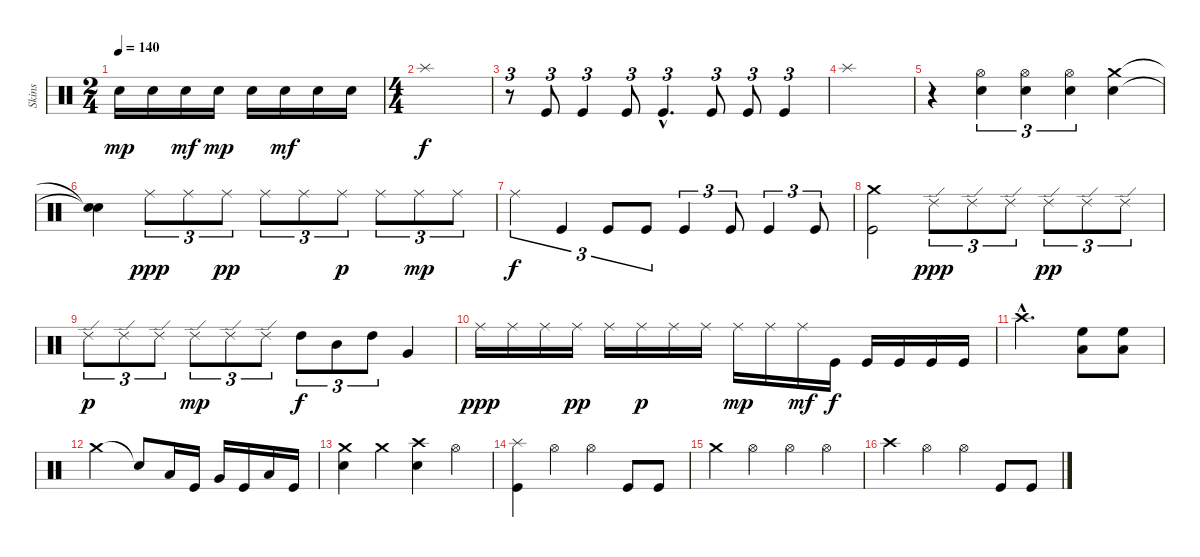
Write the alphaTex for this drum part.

\track ("Skins" "Skins") {instrument percussion}
\staff {score}
\articulation defaults
\ts (2 4)
\tempo 140
\clef neutral
\ks c "Snare (hit) 2".16{dy mp} "Snare (hit) 2".16 "Snare (hit) 2".16{dy mf} "Snare (hit) 2".16{dy mp} "Snare (hit) 2".16 "Snare (hit) 2".16{dy mf} "Snare (hit) 2".16 "Snare (hit) 2".16
|
\ts (4 4)
"Splash (hit)".1{dy f} |
r.8{tu (3 2)} "Kick (hit)".8{tu (3 2)} "Kick (hit)".4{tu (3 2)} "Kick (hit)".8{tu (3 2)} "Kick (hit)"{hac}.4{d tu (3 2)} "Kick (hit)".8{tu (3 2)} "Kick (hit)".8{tu (3 2)} "Kick (hit)".4{tu (3 2)} |
"Splash (hit)".1 |
r.4 ("Hi-Hat (open)" "Electric Snare (hit)").4{tu (3 2)} ("Hi-Hat (open)" "Electric Snare (hit)").4{tu (3 2)} ("Hi-Hat (open)" "Electric Snare (hit)").4{tu (3 2)} ("Crash medium (hit)" "Snare (hit) 2").4 |
("Snare (hit)"{t} "Snare (hit)"{t}).4 "Ride (middle)".8{tu (3 2) dy ppp} "Ride (middle)".8{tu (3 2)} "Ride (middle)".8{tu (3 2) dy pp} "Ride (middle)".8{tu (3 2)} "Ride (middle)".8{tu (3 2)} "Ride (middle)".8{tu (3 2) dy p} "Ride (middle)".8{tu (3 2)} "Ride (middle)".8{tu (3 2) dy mp} "Ride (middle)".8{tu (3 2)} |
"Ride (middle)".4{tu (3 2) dy f} "Kick (hit)".4{tu (3 2)} "Kick (hit)".8{tu (3 2)} "Kick (hit)".8{tu (3 2)} "Kick (hit)".4{tu (3 2)} "Kick (hit)".8{tu (3 2)} "Kick (hit)".4{tu (3 2)} "Kick (hit)".8{tu (3 2)} |
("Crash medium (hit)" "Kick (hit)").2 "Ride (edge) 2".8{tu (3 2) dy ppp} "Ride (edge) 2".8{tu (3 2)} "Ride (edge) 2".8{tu (3 2)} "Ride (edge) 2".8{tu (3 2) dy pp} "Ride (edge) 2".8{tu (3 2)} "Ride (edge) 2".8{tu (3 2)} |
"Ride (edge) 2".8{tu (3 2) dy p} "Ride (edge) 2".8{tu (3 2)} "Ride (edge) 2".8{tu (3 2)} "Ride (edge) 2".8{tu (3 2) dy mp} "Ride (edge) 2".8{tu (3 2)} "Ride (edge) 2".8{tu (3 2)} "High Tom (hit)".8{tu (3 2) dy f} "Mid Tom (hit)".8{tu (3 2)} "High Tom (hit)".8{tu (3 2)} "Very Low Tom (hit)".4 |
"Ride (middle)".16{dy ppp} "Ride (middle)".16 "Ride (middle)".16 "Ride (middle)".16{dy pp} "Ride (middle)".16 "Ride (middle)".16{dy p} "Ride (middle)".16 "Ride (middle)".16 "Ride (middle)".16{dy mp} "Ride (middle)".16 "Ride (middle)".16{dy mf} "Kick (hit)".16{dy f} "Kick (hit)".16 "Kick (hit)".16 "Kick (hit)".16 "Kick (hit)".16 |
"Crash high (hit)"{hac}.2{d} ("High Floor Tom (hit)" "Low Floor Tom (hit)").8 ("High Floor Tom (hit)" "Low Floor Tom (hit)").8 |
"Crash medium (hit)".2 "Snare (hit)"{t}.8 "Low Tom (hit)".16 "Kick (hit)".16 "Very Low Tom (hit)".16 "Kick (hit)".16 "Low Floor Tom (hit)".16 "Kick (hit)".16 |
("Crash medium (hit)" "Snare (hit) 2").4 "Crash medium (hit)".4 ("Crash high (hit)" "Electric Snare (hit)").4 "Hi-Hat (open)".4 |
("Splash (hit)" "Kick (hit)").4 "Hi-Hat (open)".4 "Hi-Hat (open)".4 "Kick (hit)".8 "Kick (hit)".8 |
"Crash medium (hit)".4 "Hi-Hat (open)".4 "Hi-Hat (open)".4 "Hi-Hat (open)".4 |
"Crash high (hit)".4 "Hi-Hat (open)".4 "Hi-Hat (open)".4 "Kick (hit)".8 "Kick (hit)".8
